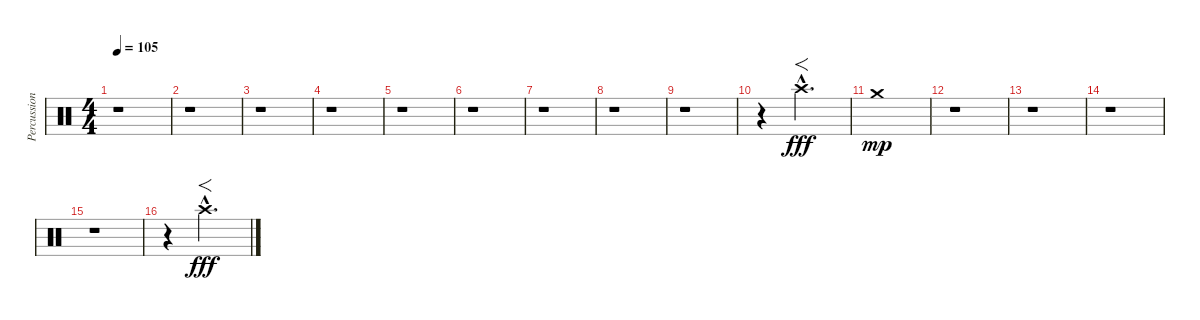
\track ("Percussion" "Percussion") {instrument percussion}
\staff {score}
\articulation defaults
\ts (4 4)
\tempo 105
\clef neutral
\ks c
r.1{dy mp} |
r.1 |
r.1 |
r.1 |
r.1 |
r.1 |
r.1 |
r.1 |
r.1 |
r.4 "Crash high (hit)"{hac}.2{f d dy fff} |
"Crash medium (hit)".1{dy mp} |
r.1 |
r.1 |
r.1 |
r.1 |
r.4 "Crash high (hit)"{hac}.2{f d dy fff}
